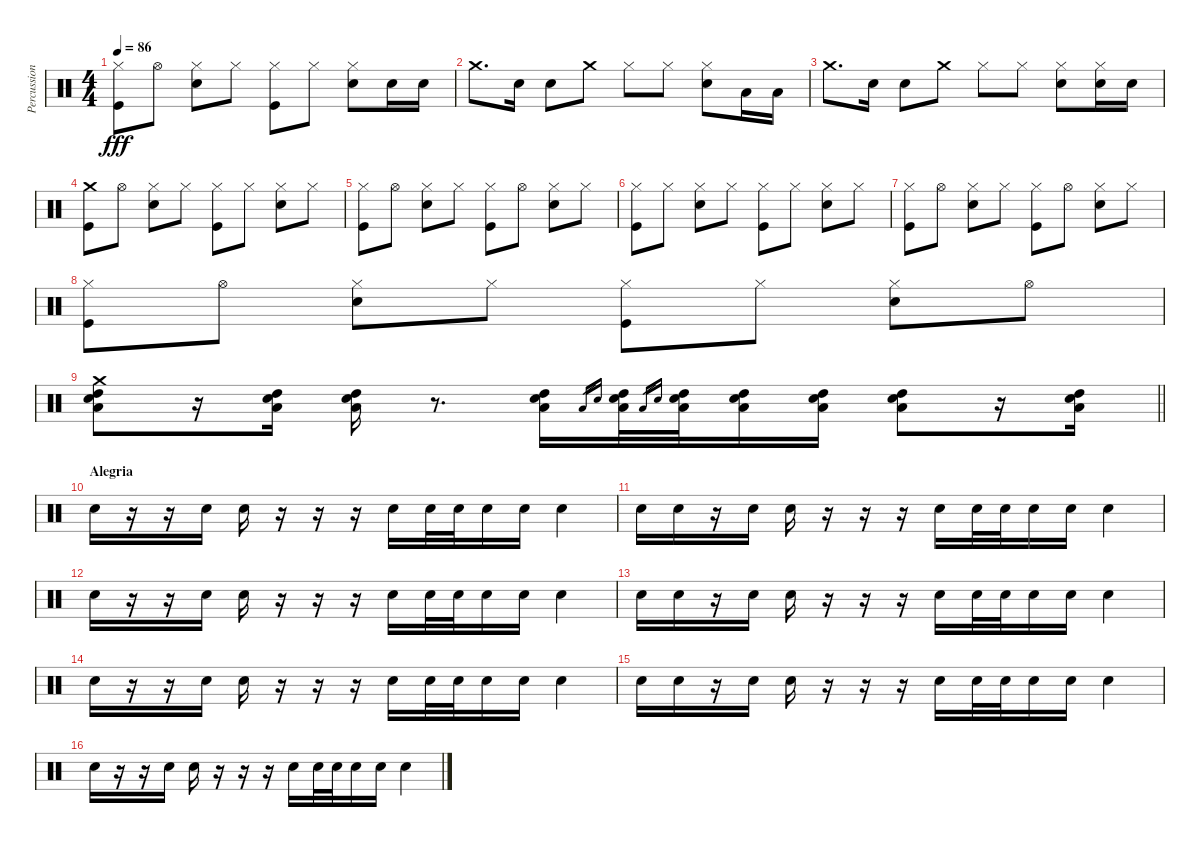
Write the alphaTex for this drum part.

\track ("Percussion 1" "Percussion") {instrument percussion}
\staff {score}
\articulation defaults
\ts (4 4)
\tempo 86
\clef neutral
\ks c
("Hi-Hat (closed)" "Kick (hit)").8{dy fff} "Hi-Hat (open)".8 ("Hi-Hat (closed)" "Electric Snare (hit)").8 "Hi-Hat (closed)".8 ("Hi-Hat (closed)" "Kick (hit)").8 "Hi-Hat (closed)".8 ("Hi-Hat (closed)" "Electric Snare (hit)").8 "Electric Snare (hit)".16 "Electric Snare (hit)".16 |
"Crash medium (hit)".8{d} "Electric Snare (hit)".16 "Electric Snare (hit)".8 "Crash medium (hit)".8 "Hi-Hat (closed)".8 "Hi-Hat (closed)".8 ("Hi-Hat (closed)" "Electric Snare (hit)").8 "Low Tom (hit)".16 "Low Tom (hit)".16 |
"Crash medium (hit)".8{d} "Electric Snare (hit)".16 "Electric Snare (hit)".8 "Crash medium (hit)".8 "Hi-Hat (closed)".8 "Hi-Hat (closed)".8 ("Hi-Hat (closed)" "Electric Snare (hit)").8 ("Hi-Hat (closed)" "Electric Snare (hit)").16 "Electric Snare (hit)".16 |
("Crash medium (hit)" "Kick (hit)").8 "Hi-Hat (open)".8 ("Hi-Hat (closed)" "Electric Snare (hit)").8 "Hi-Hat (closed)".8 ("Hi-Hat (closed)" "Kick (hit)").8 "Hi-Hat (closed)".8 ("Hi-Hat (closed)" "Electric Snare (hit)").8 "Hi-Hat (closed)".8 |
("Hi-Hat (closed)" "Kick (hit)").8 "Hi-Hat (open)".8 ("Hi-Hat (closed)" "Electric Snare (hit)").8 "Hi-Hat (closed)".8 ("Hi-Hat (closed)" "Kick (hit)").8 "Hi-Hat (open)".8 ("Hi-Hat (closed)" "Electric Snare (hit)").8 "Hi-Hat (closed)".8 |
("Hi-Hat (closed)" "Kick (hit)").8 "Hi-Hat (closed)".8 ("Hi-Hat (closed)" "Electric Snare (hit)").8 "Hi-Hat (closed)".8 ("Hi-Hat (closed)" "Kick (hit)").8 "Hi-Hat (closed)".8 ("Hi-Hat (closed)" "Electric Snare (hit)").8 "Hi-Hat (closed)".8 |
("Hi-Hat (closed)" "Kick (hit)").8 "Hi-Hat (open)".8 ("Hi-Hat (closed)" "Electric Snare (hit)").8 "Hi-Hat (closed)".8 ("Hi-Hat (closed)" "Kick (hit)").8 "Hi-Hat (open)".8 ("Hi-Hat (closed)" "Electric Snare (hit)").8 "Hi-Hat (closed)".8 |
("Hi-Hat (closed)" "Kick (hit)").8 "Hi-Hat (open)".8 ("Hi-Hat (closed)" "Electric Snare (hit)").8 "Hi-Hat (closed)".8 ("Hi-Hat (closed)" "Kick (hit)").8 "Hi-Hat (closed)".8 ("Hi-Hat (closed)" "Electric Snare (hit)").8 "Hi-Hat (open)".8 |
\barLineRight lightlight
("Crash medium (hit)" "High Tom (hit)" "Low Tom (hit)" "Electric Snare (hit)").8 r.16 ("High Tom (hit)" "Low Tom (hit)" "Electric Snare (hit)").16 ("High Tom (hit)" "Low Tom (hit)" "Electric Snare (hit)").16 r.8{d} ("High Tom (hit)" "Low Tom (hit)" "Electric Snare (hit)").16 "Low Tom (hit)".16{gr} "Electric Snare (hit)".16{gr} ("High Tom (hit)" "Low Tom (hit)" "Electric Snare (hit)").32 "Low Tom (hit)".16{gr} "Electric Snare (hit)".16{gr} ("High Tom (hit)" "Low Tom (hit)" "Electric Snare (hit)").32 ("High Tom (hit)" "Low Tom (hit)" "Electric Snare (hit)").16 ("High Tom (hit)" "Low Tom (hit)" "Electric Snare (hit)").16 ("High Tom (hit)" "Low Tom (hit)" "Electric Snare (hit)").8 r.16 ("High Tom (hit)" "Low Tom (hit)" "Electric Snare (hit)").16 |
\section ("" "Alegria")
"Electric Snare (hit)".16 r.16 r.16 "Electric Snare (hit)".16 "Electric Snare (hit)".16 r.16 r.16 r.16 "Electric Snare (hit)".16 "Electric Snare (hit)".32 "Electric Snare (hit)".32 "Electric Snare (hit)".16 "Electric Snare (hit)".16 "Electric Snare (hit)".4 |
"Electric Snare (hit)".16 "Electric Snare (hit)".16 r.16 "Electric Snare (hit)".16 "Electric Snare (hit)".16 r.16 r.16 r.16 "Electric Snare (hit)".16 "Electric Snare (hit)".32 "Electric Snare (hit)".32 "Electric Snare (hit)".16 "Electric Snare (hit)".16 "Electric Snare (hit)".4 |
"Electric Snare (hit)".16 r.16 r.16 "Electric Snare (hit)".16 "Electric Snare (hit)".16 r.16 r.16 r.16 "Electric Snare (hit)".16 "Electric Snare (hit)".32 "Electric Snare (hit)".32 "Electric Snare (hit)".16 "Electric Snare (hit)".16 "Electric Snare (hit)".4 |
"Electric Snare (hit)".16 "Electric Snare (hit)".16 r.16 "Electric Snare (hit)".16 "Electric Snare (hit)".16 r.16 r.16 r.16 "Electric Snare (hit)".16 "Electric Snare (hit)".32 "Electric Snare (hit)".32 "Electric Snare (hit)".16 "Electric Snare (hit)".16 "Electric Snare (hit)".4 |
"Electric Snare (hit)".16 r.16 r.16 "Electric Snare (hit)".16 "Electric Snare (hit)".16 r.16 r.16 r.16 "Electric Snare (hit)".16 "Electric Snare (hit)".32 "Electric Snare (hit)".32 "Electric Snare (hit)".16 "Electric Snare (hit)".16 "Electric Snare (hit)".4 |
"Electric Snare (hit)".16 "Electric Snare (hit)".16 r.16 "Electric Snare (hit)".16 "Electric Snare (hit)".16 r.16 r.16 r.16 "Electric Snare (hit)".16 "Electric Snare (hit)".32 "Electric Snare (hit)".32 "Electric Snare (hit)".16 "Electric Snare (hit)".16 "Electric Snare (hit)".4 |
"Electric Snare (hit)".16 r.16 r.16 "Electric Snare (hit)".16 "Electric Snare (hit)".16 r.16 r.16 r.16 "Electric Snare (hit)".16 "Electric Snare (hit)".32 "Electric Snare (hit)".32 "Electric Snare (hit)".16 "Electric Snare (hit)".16 "Electric Snare (hit)".4
